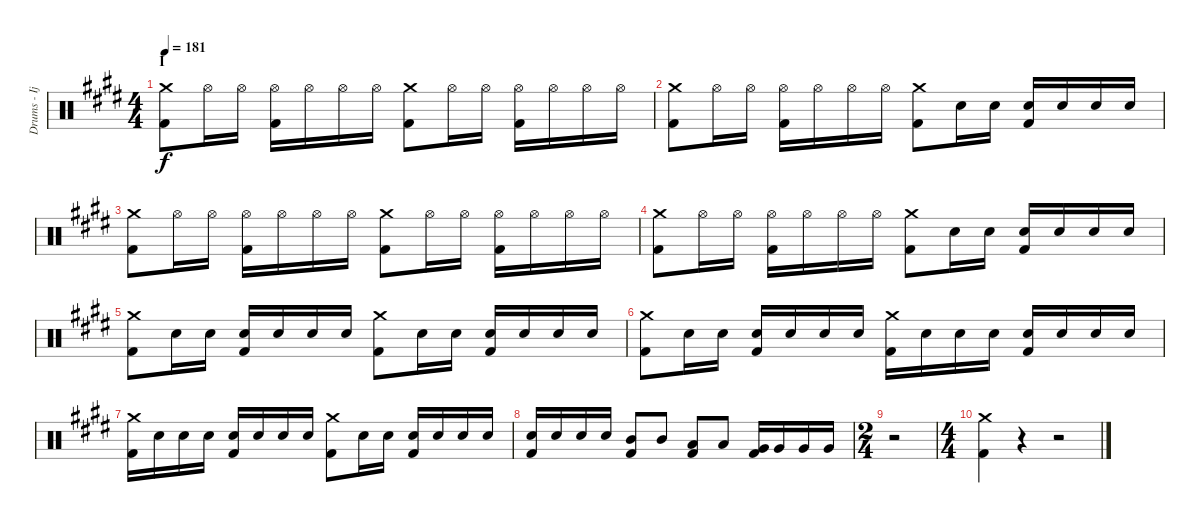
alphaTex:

\track ("Drums - Ijichi" "Drums - Ij") {instrument percussion}
\staff {score}
\articulation defaults
\ts (4 4)
\section ("" "I")
\tempo 181
\clef neutral
\ks e
("Crash medium (hit)" "Kick (hit) 2").8{dy f} "Hi-Hat (open)".16 "Hi-Hat (open)".16 ("Hi-Hat (open)" "Kick (hit) 2").16 "Hi-Hat (open)".16 "Hi-Hat (open)".16 "Hi-Hat (open)".16 ("Crash medium (hit)" "Kick (hit) 2").8 "Hi-Hat (open)".16 "Hi-Hat (open)".16 ("Hi-Hat (open)" "Kick (hit) 2").16 "Hi-Hat (open)".16 "Hi-Hat (open)".16 "Hi-Hat (open)".16 |
("Crash medium (hit)" "Kick (hit) 2").8 "Hi-Hat (open)".16 "Hi-Hat (open)".16 ("Hi-Hat (open)" "Kick (hit) 2").16 "Hi-Hat (open)".16 "Hi-Hat (open)".16 "Hi-Hat (open)".16 ("Crash medium (hit)" "Kick (hit) 2").8 "Electric Snare (hit)".16 "Electric Snare (hit)".16 ("Electric Snare (hit)" "Kick (hit) 2").16 "Electric Snare (hit)".16 "Electric Snare (hit)".16 "Electric Snare (hit)".16 |
("Crash medium (hit)" "Kick (hit) 2").8 "Hi-Hat (open)".16 "Hi-Hat (open)".16 ("Hi-Hat (open)" "Kick (hit) 2").16 "Hi-Hat (open)".16 "Hi-Hat (open)".16 "Hi-Hat (open)".16 ("Crash medium (hit)" "Kick (hit) 2").8 "Hi-Hat (open)".16 "Hi-Hat (open)".16 ("Hi-Hat (open)" "Kick (hit) 2").16 "Hi-Hat (open)".16 "Hi-Hat (open)".16 "Hi-Hat (open)".16 |
("Crash medium (hit)" "Kick (hit) 2").8 "Hi-Hat (open)".16 "Hi-Hat (open)".16 ("Hi-Hat (open)" "Kick (hit) 2").16 "Hi-Hat (open)".16 "Hi-Hat (open)".16 "Hi-Hat (open)".16 ("Crash medium (hit)" "Kick (hit) 2").8 "Electric Snare (hit)".16 "Electric Snare (hit)".16 ("Electric Snare (hit)" "Kick (hit) 2").16 "Electric Snare (hit)".16 "Electric Snare (hit)".16 "Electric Snare (hit)".16 |
("Crash medium (hit)" "Kick (hit) 2").8 "Electric Snare (hit)".16 "Electric Snare (hit)".16 ("Electric Snare (hit)" "Kick (hit) 2").16 "Electric Snare (hit)".16 "Electric Snare (hit)".16 "Electric Snare (hit)".16 ("Crash medium (hit)" "Kick (hit) 2").8 "Electric Snare (hit)".16 "Electric Snare (hit)".16 ("Electric Snare (hit)" "Kick (hit) 2").16 "Electric Snare (hit)".16 "Electric Snare (hit)".16 "Electric Snare (hit)".16 |
("Crash medium (hit)" "Kick (hit) 2").8 "Electric Snare (hit)".16 "Electric Snare (hit)".16 ("Electric Snare (hit)" "Kick (hit) 2").16 "Electric Snare (hit)".16 "Electric Snare (hit)".16 "Electric Snare (hit)".16 ("Crash medium (hit)" "Kick (hit) 2").16 "Electric Snare (hit)".16 "Electric Snare (hit)".16 "Electric Snare (hit)".16 ("Electric Snare (hit)" "Kick (hit) 2").16 "Electric Snare (hit)".16 "Electric Snare (hit)".16 "Electric Snare (hit)".16 |
("Crash medium (hit)" "Kick (hit) 2").16 "Electric Snare (hit)".16 "Electric Snare (hit)".16 "Electric Snare (hit)".16 ("Electric Snare (hit)" "Kick (hit) 2").16 "Electric Snare (hit)".16 "Electric Snare (hit)".16 "Electric Snare (hit)".16 ("Crash medium (hit)" "Kick (hit) 2").8 "Electric Snare (hit)".16 "Electric Snare (hit)".16 ("Electric Snare (hit)" "Kick (hit) 2").16 "Electric Snare (hit)".16 "Electric Snare (hit)".16 "Electric Snare (hit)".16 |
("Electric Snare (hit)" "Kick (hit) 2").16 "Electric Snare (hit)".16 "Electric Snare (hit)".16 "Electric Snare (hit)".16 ("Mid Tom (hit)" "Kick (hit) 2").8 "Mid Tom (hit)".8 ("Low Tom (hit)" "Kick (hit) 2").8 "Low Tom (hit)".8 ("Very Low Tom (hit)" "Kick (hit) 2").16 "Very Low Tom (hit)".16 "Very Low Tom (hit)".16 "Very Low Tom (hit)".16 |
\ts (2 4)
r.2 |
\ts (4 4)
("Crash medium (hit)" "Kick (hit) 2").4 r.4 r.2
